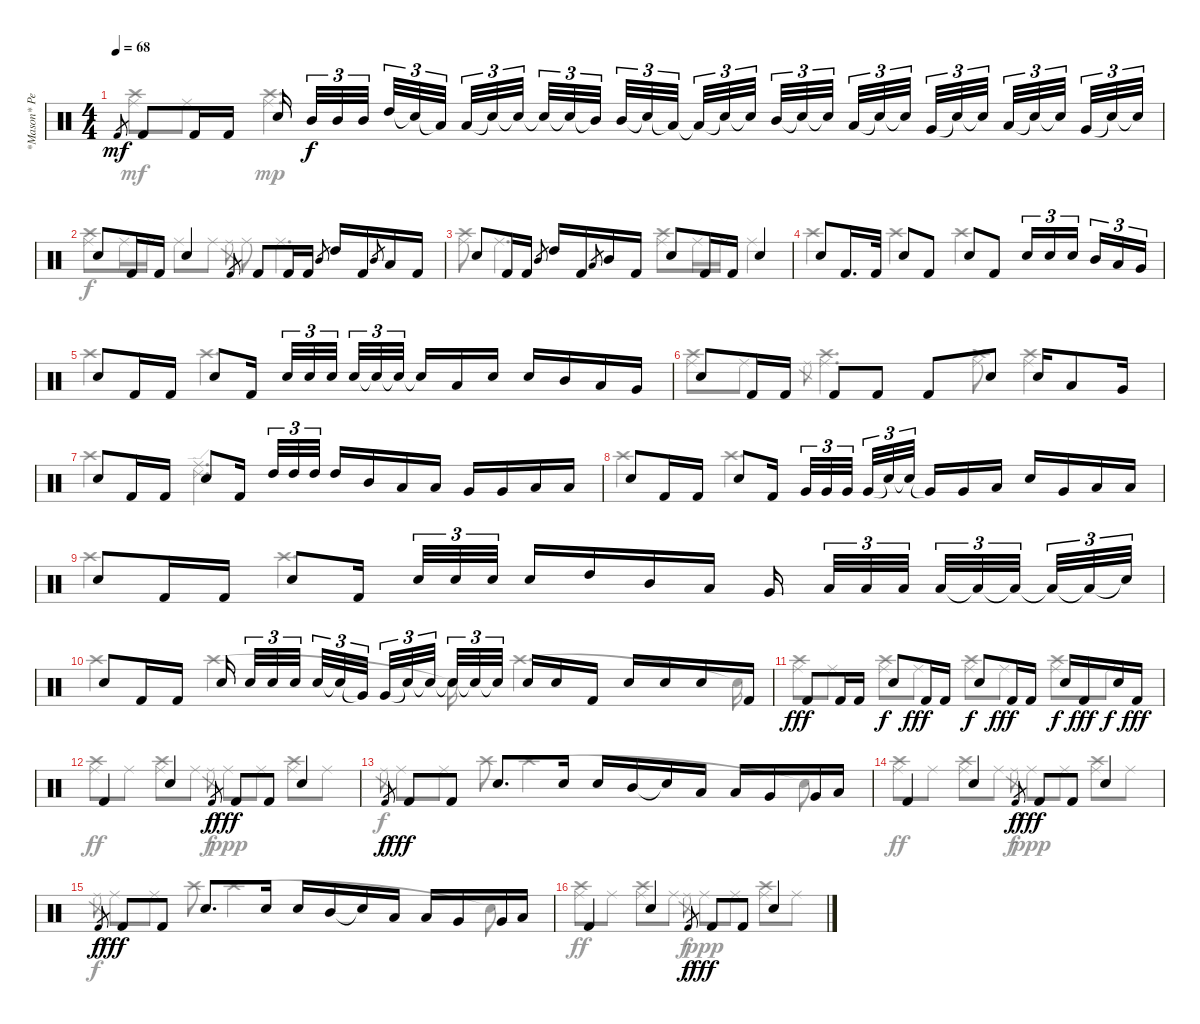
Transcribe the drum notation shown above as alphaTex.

\track ("*Mason* Percussion" "*Mason* Pe") {instrument percussion}
\staff {score}
\articulation defaults
\voice
\ts (4 4)
\tempo 68
\clef neutral
\ks c "Kick (hit) 2".8{gr dy mf} "Kick (hit) 2".8 "Kick (hit) 2".16 "Kick (hit) 2".16 "Snare (hit) 2".16{beam splitsecondary} "Mid Tom (hit)".32{tu (3 2) dy f} "Mid Tom (hit)".32{tu (3 2)} "Mid Tom (hit)".32{tu (3 2) beam splitsecondary} "High Tom (hit)".32{tu (3 2)} "Snare (hit)"{t}.32{tu (3 2)} "Low Tom (hit)"{t}.32{tu (3 2) beam splitsecondary} "Low Tom (hit)".32{tu (3 2)} "Snare (hit)"{t}.32{tu (3 2)} "Snare (hit)"{t}.32{tu (3 2)} "Snare (hit)"{t}.32{tu (3 2)} "Snare (hit)"{t}.32{tu (3 2)} "Mid Tom (hit)"{t}.32{tu (3 2) beam splitsecondary} "Mid Tom (hit)".32{tu (3 2)} "Snare (hit)"{t}.32{tu (3 2)} "Low Tom (hit)"{t}.32{tu (3 2) beam splitsecondary} "Low Tom (hit)"{t}.32{tu (3 2)} "Snare (hit)"{t}.32{tu (3 2)} "Snare (hit)"{t}.32{tu (3 2) beam splitsecondary} "Mid Tom (hit)".32{tu (3 2)} "Snare (hit)"{t}.32{tu (3 2)} "Snare (hit)"{t}.32{tu (3 2)} "Low Tom (hit)".32{tu (3 2)} "Snare (hit)"{t}.32{tu (3 2)} "Snare (hit)"{t}.32{tu (3 2) beam splitsecondary} "Very Low Tom (hit)".32{tu (3 2)} "Snare (hit)"{t}.32{tu (3 2)} "Snare (hit)"{t}.32{tu (3 2) beam splitsecondary} "Low Floor Tom (hit)".32{tu (3 2)} "Snare (hit)"{t}.32{tu (3 2)} "Snare (hit)"{t}.32{tu (3 2) beam splitsecondary} "Very Low Tom (hit)".32{tu (3 2)} "Snare (hit)"{t}.32{tu (3 2)} "Snare (hit)"{t}.32{tu (3 2)}
|
"Snare (hit) 2".8 "Kick (hit) 2".16 "Kick (hit) 2".16 "Snare (hit) 2".4 "Kick (hit) 2".8{gr} "Kick (hit) 2".8 "Kick (hit) 2".16 "Kick (hit) 2".16 "Mid Tom (hit)".8{gr} "High Tom (hit)".16 "Kick (hit) 2".16 "Mid Tom (hit)".8{gr} "Low Tom (hit)".16 "Kick (hit) 2".16 |
"Snare (hit) 2".8 "Kick (hit) 2".16 "Kick (hit) 2".16 "Mid Tom (hit)"{h}.8{gr} "High Tom (hit)".16 "Kick (hit) 2".16 "Low Tom (hit)"{h}.8{gr} "Mid Tom (hit)".16 "Kick (hit) 2".16 "Snare (hit) 2".8 "Kick (hit) 2".16 "Kick (hit) 2".16 "Snare (hit) 2".4 |
"Snare (hit) 2".8 "Kick (hit) 2".16{d} "Kick (hit) 2".32 "Snare (hit) 2".8 "Kick (hit) 2".8 "Snare (hit) 2".8 "Kick (hit) 2".8 "Snare (hit) 2".16{tu (3 2)} "Snare (hit) 2".16{tu (3 2)} "Snare (hit) 2".16{tu (3 2) beam splitsecondary} "Mid Tom (hit)".16{tu (3 2)} "Low Tom (hit)".16{tu (3 2)} "Very Low Tom (hit)".16{tu (3 2)} |
"Snare (hit) 2".8 "Kick (hit) 2".16 "Kick (hit) 2".16 "Snare (hit) 2".8 "Kick (hit) 2".16{beam splitsecondary} "Snare (hit) 2".32{tu (3 2)} "Snare (hit) 2".32{tu (3 2)} "Snare (hit) 2".32{tu (3 2)} "Snare (hit) 2".32{tu (3 2)} "Snare (hit)"{t}.32{tu (3 2)} "Snare (hit)"{t}.32{tu (3 2) beam splitsecondary} "Snare (hit)"{t}.16 "Low Tom (hit)".16 "Snare (hit) 2".16 "Snare (hit) 2".16 "Mid Tom (hit)".16 "Low Tom (hit)".16 "Very Low Tom (hit)".16 |
"Snare (hit) 2".8 "Kick (hit) 2".16 "Kick (hit) 2".16 "Kick (hit) 2".8 "Kick (hit) 2".8 "Kick (hit) 2".8 "Snare (hit) 2".8 "Snare (hit) 2".16 "Low Floor Tom (hit)".8 "Very Low Tom (hit)".16 |
"Snare (hit) 2".8 "Kick (hit) 2".16 "Kick (hit) 2".16 "Snare (hit) 2".8 "Kick (hit) 2".16{beam splitsecondary} "High Tom (hit)".32{tu (3 2)} "High Tom (hit)".32{tu (3 2)} "High Tom (hit)".32{tu (3 2)} "High Tom (hit)".16 "Mid Tom (hit)".16 "Low Tom (hit)".16 "Low Tom (hit)".16 "Very Low Tom (hit)".16 "Very Low Tom (hit)".16 "Low Floor Tom (hit)".16 "Low Floor Tom (hit)".16 |
"Snare (hit) 2".8 "Kick (hit) 2".16 "Kick (hit) 2".16 "Snare (hit) 2".8 "Kick (hit) 2".16{beam splitsecondary} "Very Low Tom (hit)".32{tu (3 2)} "Very Low Tom (hit)".32{tu (3 2)} "Very Low Tom (hit)".32{tu (3 2)} "Very Low Tom (hit)".32{tu (3 2)} "Snare (hit)"{t}.32{tu (3 2)} "Snare (hit)"{t}.32{tu (3 2) beam splitsecondary} "Very Low Tom (hit)"{t}.16 "Very Low Tom (hit)".16 "Low Floor Tom (hit)".16 "Snare (hit) 2".16 "Very Low Tom (hit)".16 "Low Floor Tom (hit)".16 "Low Floor Tom (hit)".16 |
"Snare (hit) 2".8 "Kick (hit) 2".16 "Kick (hit) 2".16 "Snare (hit) 2".8 "Kick (hit) 2".16{beam splitsecondary} "Snare (hit) 2".32{tu (3 2)} "Snare (hit) 2".32{tu (3 2)} "Snare (hit) 2".32{tu (3 2)} "Snare (hit) 2".16 "High Tom (hit)".16 "Mid Tom (hit)".16 "Low Tom (hit)".16 "Very Low Tom (hit)".16{beam splitsecondary} "Low Floor Tom (hit)".32{tu (3 2)} "Low Floor Tom (hit)".32{tu (3 2)} "Low Floor Tom (hit)".32{tu (3 2) beam splitsecondary} "Low Floor Tom (hit)".32{tu (3 2)} "Low Floor Tom (hit)"{t}.32{tu (3 2)} "Low Floor Tom (hit)"{t}.32{tu (3 2) beam splitsecondary} "Low Floor Tom (hit)"{t}.32{tu (3 2)} "Low Floor Tom (hit)"{t}.32{tu (3 2)} "Snare (hit)"{t}.32{tu (3 2)} |
"Snare (hit) 2".8 "Kick (hit) 2".16 "Kick (hit) 2".16 "Snare (hit) 2".16{beam splitsecondary} "Snare (hit) 2".32{tu (3 2)} "Snare (hit) 2".32{tu (3 2)} "Snare (hit) 2".32{tu (3 2) beam splitsecondary} "Snare (hit) 2".32{tu (3 2)} "Snare (hit)"{t}.32{tu (3 2)} "Very Low Tom (hit)"{t}.32{tu (3 2) beam splitsecondary} "Very Low Tom (hit)".32{tu (3 2)} "Snare (hit)"{t}.32{tu (3 2)} "Snare (hit) 2"{t}.32{tu (3 2)} "Snare (hit) 2"{t}.32{tu (3 2)} "Snare (hit)"{t}.32{tu (3 2)} "Snare (hit)"{t}.32{tu (3 2) beam splitsecondary} "Snare (hit) 2".16 "Snare (hit) 2".16 "Kick (hit) 2".16 "Snare (hit) 2".16 "Snare (hit) 2".16 "Snare (hit) 2".16 "Kick (hit) 2".16 |
"Kick (hit) 2".8{dy fff} "Kick (hit) 2".16 "Kick (hit) 2".16 "Snare (hit) 2".8{dy f} "Kick (hit) 2".16{dy fff} "Kick (hit) 2".16 "Snare (hit) 2".8{dy f} "Kick (hit) 2".16{dy fff} "Kick (hit) 2".16 "Snare (hit) 2".16{dy f} "Kick (hit) 2".16{dy fff} "Snare (hit) 2".16{dy f} "Kick (hit) 2".16{dy fff} |
"Kick (hit) 2".4{volume 16} "Snare (hit) 2".4 "Kick (hit) 2".8{gr dy f} "Kick (hit) 2".8{dy fff} "Kick (hit) 2".8 "Snare (hit) 2".4 |
"Kick (hit) 2".8{gr dy f} "Kick (hit) 2".8{dy fff} "Kick (hit) 2".8 "Snare (hit) 2".8{d} "Snare (hit) 2".16 "Snare (hit) 2".16 "Mid Tom (hit)".16 "Snare (hit)"{t}.16 "Low Tom (hit)".16 "Low Tom (hit)".16 "Very Low Tom (hit)".16 "Very Low Tom (hit)".16 "Low Floor Tom (hit)".16 |
"Kick (hit) 2".4 "Snare (hit) 2".4 "Kick (hit) 2".8{gr dy f} "Kick (hit) 2".8{dy fff} "Kick (hit) 2".8 "Snare (hit) 2".4 |
"Kick (hit) 2".8{gr dy f} "Kick (hit) 2".8{dy fff} "Kick (hit) 2".8 "Snare (hit) 2".8{d} "Snare (hit) 2".16 "Snare (hit) 2".16 "Mid Tom (hit)".16 "Snare (hit)"{t}.16 "Low Tom (hit)".16 "Low Tom (hit)".16 "Very Low Tom (hit)".16 "Very Low Tom (hit)".16 "Low Floor Tom (hit)".16 |
"Kick (hit) 2".4 "Snare (hit) 2".4 "Kick (hit) 2".8{gr dy f} "Kick (hit) 2".8{dy fff} "Kick (hit) 2".8 "Snare (hit) 2".4
\voice
\clef neutral
\ottava regular
\simile none
\ks c
("Ride (middle)" "Crash high (hit)").8{dy mf} "Ride (middle)".8 ("Ride (middle)" "Crash high (hit)").2{d dy mp} |
("Ride (middle)" "Crash high (hit)").8{dy f} "Ride (middle)".16 "Ride (middle)".16 "Ride (middle)".8 "Ride (middle)".8 "Ride (middle)".8{gr} "Ride (middle)".8 "Ride (middle)".4{d} |
("Ride (middle)" "Crash high (hit)").8 "Ride (middle)".4{d} ("Ride (middle)" "Crash high (hit)").8 "Ride (middle)".16 "Ride (middle)".16 "Ride (middle)".4 |
"Crash high (hit)".4 "Crash high (hit)".4 "Crash high (hit)".2 |
"Crash high (hit)".4 "Crash high (hit)".2{d} |
("Ride (middle)" "Crash high (hit)").8 "Ride (middle)".8 "Ride (middle)".8{gr} ("Ride (middle)" "Crash high (hit)").4{d} ("Ride (middle)" "Crash high (hit)").8 ("Ride (middle)" "Crash high (hit)").4 |
"Crash high (hit)".4 ("Ride (middle)" "Ride (edge) 2").2{d} |
"Crash high (hit)".4 "Crash high (hit)".2{d} |
"Crash high (hit)".4 "Crash high (hit)".2{d} |
"Crash high (hit)".4 "Crash high (hit)".4 "Snare (hit)"{t}.16 "Crash high (hit)".4{d} "Snare (hit)"{t}.16 |
("Ride (middle)" "Crash high (hit)").8 "Ride (middle)".8 ("Ride (middle)" "Crash high (hit)").8 "Ride (middle)".8 ("Ride (middle)" "Crash high (hit)").8 "Ride (middle)".8 ("Ride (middle)" "Crash high (hit)").8 "Ride (middle)".8 |
("Ride (middle)" "Crash high (hit)").8{dy ff} "Ride (middle)".8 ("Ride (middle)" "Crash high (hit)").8 "Ride (middle)".8 "Ride (middle)".8{gr dy f} "Ride (middle)".8{dy ppp} "Ride (middle)".8 ("Ride (middle)" "Crash high (hit)").8 "Ride (middle)".8 |
"Ride (middle)".8{gr dy f} "Ride (middle)".8 "Ride (middle)".8 "Crash high (hit)".8 "Crash high (hit)".2 "Snare (hit)"{t}.8 |
("Ride (middle)" "Crash high (hit)").8{dy ff} "Ride (middle)".8 ("Ride (middle)" "Crash high (hit)").8 "Ride (middle)".8 "Ride (middle)".8{gr dy f} "Ride (middle)".8{dy ppp} "Ride (middle)".8 ("Ride (middle)" "Crash high (hit)").8 "Ride (middle)".8 |
"Ride (middle)".8{gr dy f} "Ride (middle)".8 "Ride (middle)".8 "Crash high (hit)".8 "Crash high (hit)".2 "Snare (hit)"{t}.8 |
("Ride (middle)" "Crash high (hit)").8{dy ff} "Ride (middle)".8 ("Ride (middle)" "Crash high (hit)").8 "Ride (middle)".8 "Ride (middle)".8{gr dy f} "Ride (middle)".8{dy ppp} "Ride (middle)".8 ("Ride (middle)" "Crash high (hit)").8 "Ride (middle)".8
